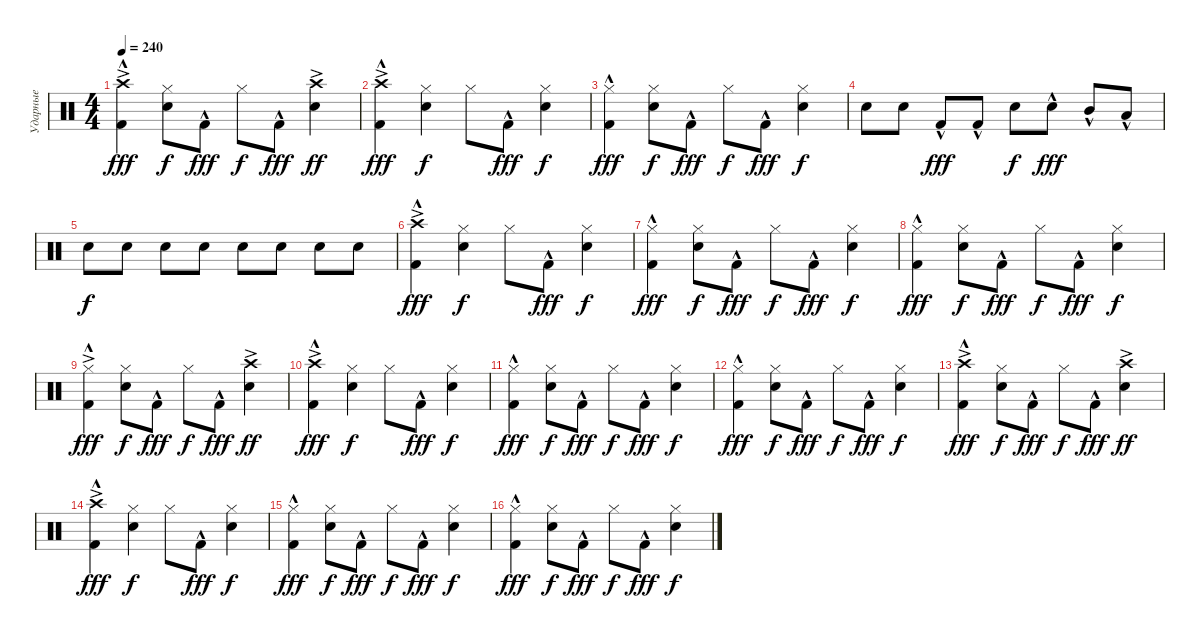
\track ("Ударные" "Ударные") {instrument percussion}
\staff {score}
\articulation defaults
\ts (4 4)
\tempo 240
\clef neutral
\ks c
("Crash high (hit)"{ac} "Kick (hit) 2"{hac}).4{dy fff} ("Hi-Hat (closed)" "Snare (hit) 2").8{dy f} "Kick (hit) 2"{hac}.8{dy fff} "Hi-Hat (closed)".8{dy f} "Kick (hit) 2"{hac}.8{dy fff} ("Crash high (hit)"{ac} "Snare (hit) 2").4{dy ff} |
("Crash high (hit)"{ac} "Kick (hit) 2"{hac}).4{dy fff} ("Hi-Hat (closed)" "Snare (hit) 2").4{dy f} "Hi-Hat (closed)".8 "Kick (hit) 2"{hac}.8{dy fff} ("Hi-Hat (closed)" "Snare (hit) 2").4{dy f} |
("Hi-Hat (closed)" "Kick (hit) 2"{hac}).4{dy fff} ("Hi-Hat (closed)" "Snare (hit) 2").8{dy f} "Kick (hit) 2"{hac}.8{dy fff} "Hi-Hat (closed)".8{dy f} "Kick (hit) 2"{hac}.8{dy fff} ("Hi-Hat (closed)" "Snare (hit) 2").4{dy f} |
"Snare (hit) 2".8 "Snare (hit) 2".8 "Kick (hit) 2"{hac}.8{dy fff} "Kick (hit) 2"{hac}.8 "Snare (hit) 2".8{dy f} "Snare (hit) 2"{hac}.8{dy fff} "Mid Tom (hit)"{hac}.8 "Low Tom (hit)"{hac}.8 |
"Snare (hit) 2".8{dy f} "Snare (hit) 2".8 "Snare (hit) 2".8 "Snare (hit) 2".8 "Snare (hit) 2".8 "Snare (hit) 2".8 "Snare (hit) 2".8 "Snare (hit) 2".8 |
("Crash high (hit)"{ac} "Kick (hit) 2"{hac}).4{dy fff} ("Hi-Hat (closed)" "Snare (hit) 2").4{dy f} "Hi-Hat (closed)".8 "Kick (hit) 2"{hac}.8{dy fff} ("Hi-Hat (closed)" "Snare (hit) 2").4{dy f} |
("Hi-Hat (closed)" "Kick (hit) 2"{hac}).4{dy fff} ("Hi-Hat (closed)" "Snare (hit) 2").8{dy f} "Kick (hit) 2"{hac}.8{dy fff} "Hi-Hat (closed)".8{dy f} "Kick (hit) 2"{hac}.8{dy fff} ("Hi-Hat (closed)" "Snare (hit) 2").4{dy f} |
("Hi-Hat (closed)" "Kick (hit) 2"{hac}).4{dy fff} ("Hi-Hat (closed)" "Snare (hit) 2").8{dy f} "Kick (hit) 2"{hac}.8{dy fff} "Hi-Hat (closed)".8{dy f} "Kick (hit) 2"{hac}.8{dy fff} ("Hi-Hat (closed)" "Snare (hit) 2").4{dy f} |
("Hi-Hat (closed)"{ac} "Kick (hit) 2"{hac}).4{dy fff} ("Hi-Hat (closed)" "Snare (hit) 2").8{dy f} "Kick (hit) 2"{hac}.8{dy fff} "Hi-Hat (closed)".8{dy f} "Kick (hit) 2"{hac}.8{dy fff} ("Crash high (hit)"{ac} "Snare (hit) 2").4{dy ff} |
("Crash high (hit)"{ac} "Kick (hit) 2"{hac}).4{dy fff} ("Hi-Hat (closed)" "Snare (hit) 2").4{dy f} "Hi-Hat (closed)".8 "Kick (hit) 2"{hac}.8{dy fff} ("Hi-Hat (closed)" "Snare (hit) 2").4{dy f} |
("Hi-Hat (closed)" "Kick (hit) 2"{hac}).4{dy fff} ("Hi-Hat (closed)" "Snare (hit) 2").8{dy f} "Kick (hit) 2"{hac}.8{dy fff} "Hi-Hat (closed)".8{dy f} "Kick (hit) 2"{hac}.8{dy fff} ("Hi-Hat (closed)" "Snare (hit) 2").4{dy f} |
("Hi-Hat (closed)" "Kick (hit) 2"{hac}).4{dy fff} ("Hi-Hat (closed)" "Snare (hit) 2").8{dy f} "Kick (hit) 2"{hac}.8{dy fff} "Hi-Hat (closed)".8{dy f} "Kick (hit) 2"{hac}.8{dy fff} ("Hi-Hat (closed)" "Snare (hit) 2").4{dy f} |
("Crash high (hit)"{ac} "Kick (hit) 2"{hac}).4{dy fff} ("Hi-Hat (closed)" "Snare (hit) 2").8{dy f} "Kick (hit) 2"{hac}.8{dy fff} "Hi-Hat (closed)".8{dy f} "Kick (hit) 2"{hac}.8{dy fff} ("Crash high (hit)"{ac} "Snare (hit) 2").4{dy ff} |
("Crash high (hit)"{ac} "Kick (hit) 2"{hac}).4{dy fff} ("Hi-Hat (closed)" "Snare (hit) 2").4{dy f} "Hi-Hat (closed)".8 "Kick (hit) 2"{hac}.8{dy fff} ("Hi-Hat (closed)" "Snare (hit) 2").4{dy f} |
("Hi-Hat (closed)" "Kick (hit) 2"{hac}).4{dy fff} ("Hi-Hat (closed)" "Snare (hit) 2").8{dy f} "Kick (hit) 2"{hac}.8{dy fff} "Hi-Hat (closed)".8{dy f} "Kick (hit) 2"{hac}.8{dy fff} ("Hi-Hat (closed)" "Snare (hit) 2").4{dy f} |
("Hi-Hat (closed)" "Kick (hit) 2"{hac}).4{dy fff} ("Hi-Hat (closed)" "Snare (hit) 2").8{dy f} "Kick (hit) 2"{hac}.8{dy fff} "Hi-Hat (closed)".8{dy f} "Kick (hit) 2"{hac}.8{dy fff} ("Hi-Hat (closed)" "Snare (hit) 2").4{dy f}
